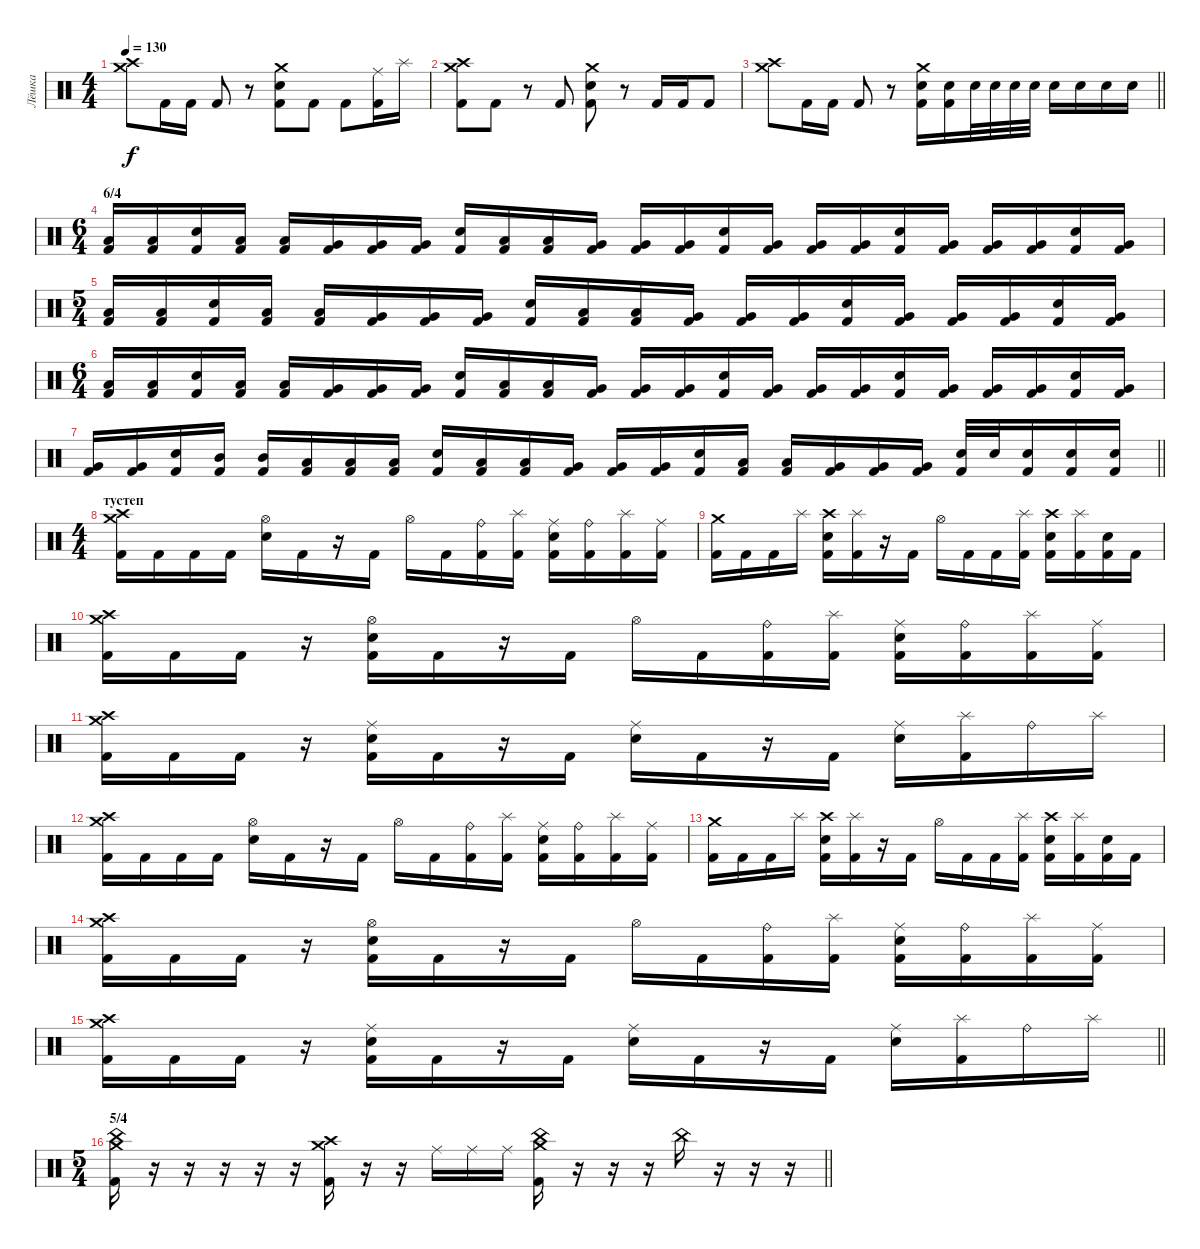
\track ("Лёшка" "Лёшка") {instrument percussion}
\staff {score}
\articulation defaults
\ts (4 4)
\tempo 130
\clef neutral
\ks c
("Crash medium (hit)" "Crash high (hit)").8{dy f} "Kick (hit) 2".16 "Kick (hit) 2".16 "Kick (hit) 2".8 r.8 ("Crash medium (hit)" "Electric Snare (hit)" "Kick (hit) 2").8 "Kick (hit) 2".8 "Kick (hit) 2".8 ("Ride (middle)" "Kick (hit) 2").16 "Splash (hit)".16 |
("Crash medium (hit)" "Crash high (hit)" "Kick (hit) 2").8 "Kick (hit) 2".8 r.8 "Kick (hit) 2".8 ("Crash medium (hit)" "Electric Snare (hit)" "Kick (hit) 2").8 r.8 "Kick (hit) 2".16 "Kick (hit) 2".16 "Kick (hit) 2".8 |
\barLineRight lightlight
("Crash medium (hit)" "Crash high (hit)").8 "Kick (hit) 2".16 "Kick (hit) 2".16 "Kick (hit) 2".8 r.8 ("Crash medium (hit)" "Electric Snare (hit)" "Kick (hit) 2").16 ("Electric Snare (hit)" "Kick (hit) 2").16 "Electric Snare (hit)".32 "Electric Snare (hit)".32 "Electric Snare (hit)".32 "Electric Snare (hit)".32 "Electric Snare (hit)".16 "Electric Snare (hit)".16 "Electric Snare (hit)".16 "Electric Snare (hit)".16 |
\ts (6 4)
\section ("" "6/4")
("Low Tom (hit)" "Kick (hit) 2").16 ("Low Tom (hit)" "Kick (hit) 2").16 ("Electric Snare (hit)" "Kick (hit) 2").16 ("Low Tom (hit)" "Kick (hit) 2").16 ("Low Tom (hit)" "Kick (hit) 2").16 ("Very Low Tom (hit)" "Kick (hit) 2").16 ("Very Low Tom (hit)" "Kick (hit) 2").16 ("Very Low Tom (hit)" "Kick (hit) 2").16 ("Electric Snare (hit)" "Kick (hit) 2").16 ("Low Tom (hit)" "Kick (hit) 2").16 ("Low Tom (hit)" "Kick (hit) 2").16 ("Very Low Tom (hit)" "Kick (hit) 2").16 ("Very Low Tom (hit)" "Kick (hit) 2").16 ("Very Low Tom (hit)" "Kick (hit) 2").16 ("Electric Snare (hit)" "Kick (hit) 2").16 ("Very Low Tom (hit)" "Kick (hit) 2").16 ("Very Low Tom (hit)" "Kick (hit) 2").16 ("Very Low Tom (hit)" "Kick (hit) 2").16 ("Electric Snare (hit)" "Kick (hit) 2").16 ("Very Low Tom (hit)" "Kick (hit) 2").16 ("Very Low Tom (hit)" "Kick (hit) 2").16 ("Very Low Tom (hit)" "Kick (hit) 2").16 ("Electric Snare (hit)" "Kick (hit) 2").16 ("Very Low Tom (hit)" "Kick (hit) 2").16 |
\ts (5 4)
("Low Tom (hit)" "Kick (hit) 2").16 ("Low Tom (hit)" "Kick (hit) 2").16 ("Electric Snare (hit)" "Kick (hit) 2").16 ("Low Tom (hit)" "Kick (hit) 2").16 ("Low Tom (hit)" "Kick (hit) 2").16 ("Very Low Tom (hit)" "Kick (hit) 2").16 ("Very Low Tom (hit)" "Kick (hit) 2").16 ("Very Low Tom (hit)" "Kick (hit) 2").16 ("Electric Snare (hit)" "Kick (hit) 2").16 ("Low Tom (hit)" "Kick (hit) 2").16 ("Low Tom (hit)" "Kick (hit) 2").16 ("Very Low Tom (hit)" "Kick (hit) 2").16 ("Very Low Tom (hit)" "Kick (hit) 2").16 ("Very Low Tom (hit)" "Kick (hit) 2").16 ("Electric Snare (hit)" "Kick (hit) 2").16 ("Very Low Tom (hit)" "Kick (hit) 2").16 ("Very Low Tom (hit)" "Kick (hit) 2").16 ("Very Low Tom (hit)" "Kick (hit) 2").16 ("Electric Snare (hit)" "Kick (hit) 2").16 ("Very Low Tom (hit)" "Kick (hit) 2").16 |
\ts (6 4)
("Low Tom (hit)" "Kick (hit) 2").16 ("Low Tom (hit)" "Kick (hit) 2").16 ("Electric Snare (hit)" "Kick (hit) 2").16 ("Low Tom (hit)" "Kick (hit) 2").16 ("Low Tom (hit)" "Kick (hit) 2").16 ("Very Low Tom (hit)" "Kick (hit) 2").16 ("Very Low Tom (hit)" "Kick (hit) 2").16 ("Very Low Tom (hit)" "Kick (hit) 2").16 ("Electric Snare (hit)" "Kick (hit) 2").16 ("Low Tom (hit)" "Kick (hit) 2").16 ("Low Tom (hit)" "Kick (hit) 2").16 ("Very Low Tom (hit)" "Kick (hit) 2").16 ("Very Low Tom (hit)" "Kick (hit) 2").16 ("Very Low Tom (hit)" "Kick (hit) 2").16 ("Electric Snare (hit)" "Kick (hit) 2").16 ("Very Low Tom (hit)" "Kick (hit) 2").16 ("Very Low Tom (hit)" "Kick (hit) 2").16 ("Very Low Tom (hit)" "Kick (hit) 2").16 ("Electric Snare (hit)" "Kick (hit) 2").16 ("Very Low Tom (hit)" "Kick (hit) 2").16 ("Very Low Tom (hit)" "Kick (hit) 2").16 ("Very Low Tom (hit)" "Kick (hit) 2").16 ("Electric Snare (hit)" "Kick (hit) 2").16 ("Very Low Tom (hit)" "Kick (hit) 2").16 |
\barLineRight lightlight
("Very Low Tom (hit)" "Kick (hit) 2").16 ("Very Low Tom (hit)" "Kick (hit) 2").16 ("Electric Snare (hit)" "Kick (hit) 2").16 ("Mid Tom (hit)" "Kick (hit) 2").16 ("Mid Tom (hit)" "Kick (hit) 2").16 ("Low Tom (hit)" "Kick (hit) 2").16 ("Low Tom (hit)" "Kick (hit) 2").16 ("Low Tom (hit)" "Kick (hit) 2").16 ("Electric Snare (hit)" "Kick (hit) 2").16 ("Low Tom (hit)" "Kick (hit) 2").16 ("Low Tom (hit)" "Kick (hit) 2").16 ("Very Low Tom (hit)" "Kick (hit) 2").16 ("Very Low Tom (hit)" "Kick (hit) 2").16 ("Very Low Tom (hit)" "Kick (hit) 2").16 ("Electric Snare (hit)" "Kick (hit) 2").16 ("Low Tom (hit)" "Kick (hit) 2").16 ("Low Tom (hit)" "Kick (hit) 2").16 ("Very Low Tom (hit)" "Kick (hit) 2").16 ("Very Low Tom (hit)" "Kick (hit) 2").16 ("Very Low Tom (hit)" "Kick (hit) 2").16 ("Electric Snare (hit)" "Kick (hit) 2").32 "Electric Snare (hit)".32 ("Electric Snare (hit)" "Kick (hit) 2").16 ("Electric Snare (hit)" "Kick (hit) 2").16 ("Electric Snare (hit)" "Kick (hit) 2").16 |
\ts (4 4)
\section ("" "тустеп")
("Crash medium (hit)" "Crash high (hit)" "Kick (hit) 2").16 "Kick (hit) 2".16 "Kick (hit) 2".16 "Kick (hit) 2".16 ("Hi-Hat (open)" "Electric Snare (hit)").16 "Kick (hit) 2".16 r.16 "Kick (hit) 2".16 "Hi-Hat (open)".16 "Kick (hit) 2".16 ("Ride (bell)" "Kick (hit) 2").16 ("Splash (hit)" "Kick (hit) 2").16 ("Ride (middle)" "Electric Snare (hit)" "Kick (hit) 2").16 ("Ride (bell)" "Kick (hit) 2").16 ("Splash (hit)" "Kick (hit) 2").16 ("Ride (middle)" "Kick (hit) 2").16 |
("Crash medium (hit)" "Kick (hit) 2").16 "Kick (hit) 2".16 "Kick (hit) 2".16 "Splash (hit)".16 ("Crash high (hit)" "Electric Snare (hit)" "Kick (hit) 2").16 ("Splash (hit)" "Kick (hit) 2").16 r.16 "Kick (hit) 2".16 "Hi-Hat (open)".16 "Kick (hit) 2".16 "Kick (hit) 2".16 ("Splash (hit)" "Kick (hit) 2").16 ("Crash high (hit)" "Electric Snare (hit)" "Kick (hit) 2").16 ("Splash (hit)" "Kick (hit) 2").16 ("Electric Snare (hit)" "Kick (hit) 2").16 "Kick (hit) 2".16 |
("Crash medium (hit)" "Crash high (hit)" "Kick (hit) 2").16 "Kick (hit) 2".16 "Kick (hit) 2".16 r.16 ("Hi-Hat (open)" "Electric Snare (hit)" "Kick (hit) 2").16 "Kick (hit) 2".16 r.16 "Kick (hit) 2".16 "Hi-Hat (open)".16 "Kick (hit) 2".16 ("Ride (bell)" "Kick (hit) 2").16 ("Splash (hit)" "Kick (hit) 2").16 ("Ride (middle)" "Electric Snare (hit)" "Kick (hit) 2").16 ("Ride (bell)" "Kick (hit) 2").16 ("Splash (hit)" "Kick (hit) 2").16 ("Ride (middle)" "Kick (hit) 2").16 |
("Crash medium (hit)" "Crash high (hit)" "Kick (hit) 2").16 "Kick (hit) 2".16 "Kick (hit) 2".16 r.16 ("Ride (middle)" "Electric Snare (hit)" "Kick (hit) 2").16 "Kick (hit) 2".16 r.16 "Kick (hit) 2".16 ("Ride (middle)" "Electric Snare (hit)").16 "Kick (hit) 2".16 r.16 "Kick (hit) 2".16 ("Ride (middle)" "Electric Snare (hit)").16 ("Splash (hit)" "Kick (hit) 2").16 "Ride (bell)".16 "Splash (hit)".16 |
("Crash medium (hit)" "Crash high (hit)" "Kick (hit) 2").16 "Kick (hit) 2".16 "Kick (hit) 2".16 "Kick (hit) 2".16 ("Hi-Hat (open)" "Electric Snare (hit)").16 "Kick (hit) 2".16 r.16 "Kick (hit) 2".16 "Hi-Hat (open)".16 "Kick (hit) 2".16 ("Ride (bell)" "Kick (hit) 2").16 ("Splash (hit)" "Kick (hit) 2").16 ("Ride (middle)" "Electric Snare (hit)" "Kick (hit) 2").16 ("Ride (bell)" "Kick (hit) 2").16 ("Splash (hit)" "Kick (hit) 2").16 ("Ride (middle)" "Kick (hit) 2").16 |
("Crash medium (hit)" "Kick (hit) 2").16 "Kick (hit) 2".16 "Kick (hit) 2".16 "Splash (hit)".16 ("Crash high (hit)" "Electric Snare (hit)" "Kick (hit) 2").16 ("Splash (hit)" "Kick (hit) 2").16 r.16 "Kick (hit) 2".16 "Hi-Hat (open)".16 "Kick (hit) 2".16 "Kick (hit) 2".16 ("Splash (hit)" "Kick (hit) 2").16 ("Crash high (hit)" "Electric Snare (hit)" "Kick (hit) 2").16 ("Splash (hit)" "Kick (hit) 2").16 ("Electric Snare (hit)" "Kick (hit) 2").16 "Kick (hit) 2".16 |
("Crash medium (hit)" "Crash high (hit)" "Kick (hit) 2").16 "Kick (hit) 2".16 "Kick (hit) 2".16 r.16 ("Hi-Hat (open)" "Electric Snare (hit)" "Kick (hit) 2").16 "Kick (hit) 2".16 r.16 "Kick (hit) 2".16 "Hi-Hat (open)".16 "Kick (hit) 2".16 ("Ride (bell)" "Kick (hit) 2").16 ("Splash (hit)" "Kick (hit) 2").16 ("Ride (middle)" "Electric Snare (hit)" "Kick (hit) 2").16 ("Ride (bell)" "Kick (hit) 2").16 ("Splash (hit)" "Kick (hit) 2").16 ("Ride (middle)" "Kick (hit) 2").16 |
\barLineRight lightlight
("Crash medium (hit)" "Crash high (hit)" "Kick (hit) 2").16 "Kick (hit) 2".16 "Kick (hit) 2".16 r.16 ("Ride (middle)" "Electric Snare (hit)" "Kick (hit) 2").16 "Kick (hit) 2".16 r.16 "Kick (hit) 2".16 ("Ride (middle)" "Electric Snare (hit)").16 "Kick (hit) 2".16 r.16 "Kick (hit) 2".16 ("Ride (middle)" "Electric Snare (hit)").16 ("Splash (hit)" "Kick (hit) 2").16 "Ride (bell)".16 "Splash (hit)".16 |
\ts (5 4)
\section ("" "5/4")
\barLineRight lightlight
("Crash medium (hit)" "China (hit)" "Kick (hit) 2").16 r.16 r.16 r.16 r.16 r.16 ("Crash high (hit)" "Crash medium (hit)" "Kick (hit) 2").16 r.16 r.16 "Ride (middle)".16 "Ride (middle)".16 "Ride (middle)".16 ("China (hit)" "Crash medium (hit)" "Kick (hit) 2").16 r.16 r.16 r.16 "China (hit)".16 r.16 r.16 r.16
